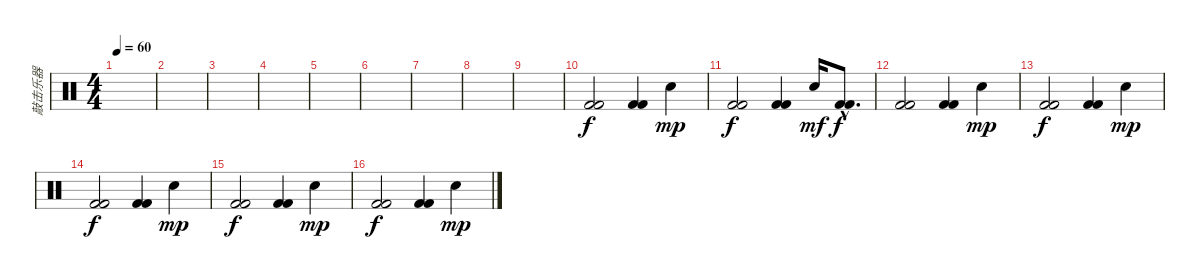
\track ("敲击乐器" "敲击乐器") {instrument percussion}
\staff {score}
\articulation defaults
\ts (4 4)
\tempo 60
\clef neutral
\ks c
|
|
|
|
|
|
|
|
|
("Kick (hit) 2" "Kick (hit) 2").2 ("Kick (hit) 2" "Kick (hit) 2").4 "Electric Snare (hit)".4{dy mp} |
("Kick (hit) 2" "Kick (hit) 2").2{dy f} ("Kick (hit) 2" "Kick (hit) 2").4 "Electric Snare (hit)".16{dy mf} ("Kick (hit) 2"{hac} "Kick (hit) 2"{hac}).8{d dy f} |
("Kick (hit) 2" "Kick (hit) 2").2 ("Kick (hit) 2" "Kick (hit) 2").4 "Electric Snare (hit)".4{dy mp} |
("Kick (hit) 2" "Kick (hit) 2").2{dy f} ("Kick (hit) 2" "Kick (hit) 2").4 "Electric Snare (hit)".4{dy mp} |
("Kick (hit) 2" "Kick (hit) 2").2{dy f} ("Kick (hit) 2" "Kick (hit) 2").4 "Electric Snare (hit)".4{dy mp} |
("Kick (hit) 2" "Kick (hit) 2").2{dy f} ("Kick (hit) 2" "Kick (hit) 2").4 "Electric Snare (hit)".4{dy mp} |
("Kick (hit) 2" "Kick (hit) 2").2{dy f} ("Kick (hit) 2" "Kick (hit) 2").4 "Electric Snare (hit)".4{dy mp}
